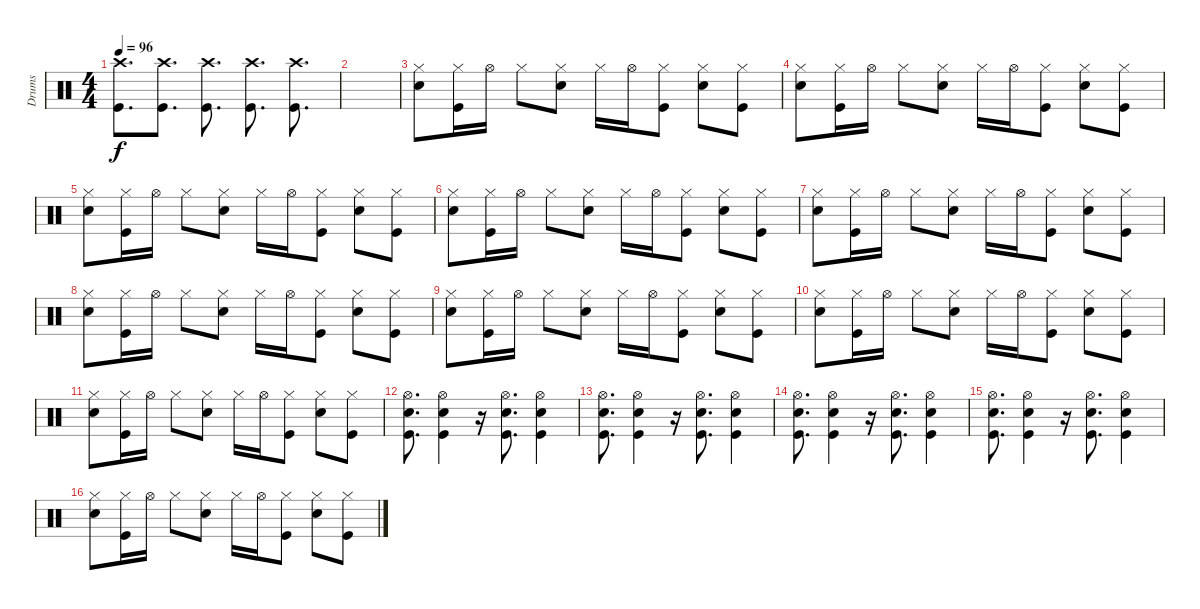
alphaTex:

\track ("Drums" "Drums") {instrument percussion}
\staff {score}
\articulation defaults
\ts (4 4)
\tempo 96
\clef neutral
\ks c
("Crash high (hit)" "Kick (hit)").8{d dy f} ("Crash high (hit)" "Kick (hit)").8{d} ("Crash high (hit)" "Kick (hit)").8{d} ("Crash high (hit)" "Kick (hit)").8{d} ("Crash high (hit)" "Kick (hit)").8{d} |
|
("Hi-Hat (closed)" "Electric Snare (hit)").8 ("Hi-Hat (closed)" "Kick (hit)").16 "Hi-Hat (open)".16 "Hi-Hat (closed)".8 ("Hi-Hat (closed)" "Electric Snare (hit)").8 "Hi-Hat (closed)".16 "Hi-Hat (open)".16 ("Hi-Hat (closed)" "Kick (hit)").8 ("Hi-Hat (closed)" "Electric Snare (hit)").8 ("Hi-Hat (closed)" "Kick (hit)").8 |
("Hi-Hat (closed)" "Electric Snare (hit)").8 ("Hi-Hat (closed)" "Kick (hit)").16 "Hi-Hat (open)".16 "Hi-Hat (closed)".8 ("Hi-Hat (closed)" "Electric Snare (hit)").8 "Hi-Hat (closed)".16 "Hi-Hat (open)".16 ("Hi-Hat (closed)" "Kick (hit)").8 ("Hi-Hat (closed)" "Electric Snare (hit)").8 ("Hi-Hat (closed)" "Kick (hit)").8 |
("Hi-Hat (closed)" "Electric Snare (hit)").8 ("Hi-Hat (closed)" "Kick (hit)").16 "Hi-Hat (open)".16 "Hi-Hat (closed)".8 ("Hi-Hat (closed)" "Electric Snare (hit)").8 "Hi-Hat (closed)".16 "Hi-Hat (open)".16 ("Hi-Hat (closed)" "Kick (hit)").8 ("Hi-Hat (closed)" "Electric Snare (hit)").8 ("Hi-Hat (closed)" "Kick (hit)").8 |
("Hi-Hat (closed)" "Electric Snare (hit)").8 ("Hi-Hat (closed)" "Kick (hit)").16 "Hi-Hat (open)".16 "Hi-Hat (closed)".8 ("Hi-Hat (closed)" "Electric Snare (hit)").8 "Hi-Hat (closed)".16 "Hi-Hat (open)".16 ("Hi-Hat (closed)" "Kick (hit)").8 ("Hi-Hat (closed)" "Electric Snare (hit)").8 ("Hi-Hat (closed)" "Kick (hit)").8 |
("Hi-Hat (closed)" "Electric Snare (hit)").8 ("Hi-Hat (closed)" "Kick (hit)").16 "Hi-Hat (open)".16 "Hi-Hat (closed)".8 ("Hi-Hat (closed)" "Electric Snare (hit)").8 "Hi-Hat (closed)".16 "Hi-Hat (open)".16 ("Hi-Hat (closed)" "Kick (hit)").8 ("Hi-Hat (closed)" "Electric Snare (hit)").8 ("Hi-Hat (closed)" "Kick (hit)").8 |
("Hi-Hat (closed)" "Electric Snare (hit)").8 ("Hi-Hat (closed)" "Kick (hit)").16 "Hi-Hat (open)".16 "Hi-Hat (closed)".8 ("Hi-Hat (closed)" "Electric Snare (hit)").8 "Hi-Hat (closed)".16 "Hi-Hat (open)".16 ("Hi-Hat (closed)" "Kick (hit)").8 ("Hi-Hat (closed)" "Electric Snare (hit)").8 ("Hi-Hat (closed)" "Kick (hit)").8 |
("Hi-Hat (closed)" "Electric Snare (hit)").8 ("Hi-Hat (closed)" "Kick (hit)").16 "Hi-Hat (open)".16 "Hi-Hat (closed)".8 ("Hi-Hat (closed)" "Electric Snare (hit)").8 "Hi-Hat (closed)".16 "Hi-Hat (open)".16 ("Hi-Hat (closed)" "Kick (hit)").8 ("Hi-Hat (closed)" "Electric Snare (hit)").8 ("Hi-Hat (closed)" "Kick (hit)").8 |
("Hi-Hat (closed)" "Electric Snare (hit)").8 ("Hi-Hat (closed)" "Kick (hit)").16 "Hi-Hat (open)".16 "Hi-Hat (closed)".8 ("Hi-Hat (closed)" "Electric Snare (hit)").8 "Hi-Hat (closed)".16 "Hi-Hat (open)".16 ("Hi-Hat (closed)" "Kick (hit)").8 ("Hi-Hat (closed)" "Electric Snare (hit)").8 ("Hi-Hat (closed)" "Kick (hit)").8 |
("Hi-Hat (closed)" "Electric Snare (hit)").8 ("Hi-Hat (closed)" "Kick (hit)").16 "Hi-Hat (open)".16 "Hi-Hat (closed)".8 ("Hi-Hat (closed)" "Electric Snare (hit)").8 "Hi-Hat (closed)".16 "Hi-Hat (open)".16 ("Hi-Hat (closed)" "Kick (hit)").8 ("Hi-Hat (closed)" "Electric Snare (hit)").8 ("Hi-Hat (closed)" "Kick (hit)").8 |
("Hi-Hat (open)" "Electric Snare (hit)" "Kick (hit)").8{d} ("Hi-Hat (open)" "Electric Snare (hit)" "Kick (hit)").4 r.16 ("Hi-Hat (open)" "Electric Snare (hit)" "Kick (hit)").8{d} ("Hi-Hat (open)" "Electric Snare (hit)" "Kick (hit)").4 |
("Hi-Hat (open)" "Electric Snare (hit)" "Kick (hit)").8{d} ("Hi-Hat (open)" "Electric Snare (hit)" "Kick (hit)").4 r.16 ("Hi-Hat (open)" "Electric Snare (hit)" "Kick (hit)").8{d} ("Hi-Hat (open)" "Electric Snare (hit)" "Kick (hit)").4 |
("Hi-Hat (open)" "Electric Snare (hit)" "Kick (hit)").8{d} ("Hi-Hat (open)" "Electric Snare (hit)" "Kick (hit)").4 r.16 ("Hi-Hat (open)" "Electric Snare (hit)" "Kick (hit)").8{d} ("Hi-Hat (open)" "Electric Snare (hit)" "Kick (hit)").4 |
("Hi-Hat (open)" "Electric Snare (hit)" "Kick (hit)").8{d} ("Hi-Hat (open)" "Electric Snare (hit)" "Kick (hit)").4 r.16 ("Hi-Hat (open)" "Electric Snare (hit)" "Kick (hit)").8{d} ("Hi-Hat (open)" "Electric Snare (hit)" "Kick (hit)").4 |
("Hi-Hat (closed)" "Electric Snare (hit)").8 ("Hi-Hat (closed)" "Kick (hit)").16 "Hi-Hat (open)".16 "Hi-Hat (closed)".8 ("Hi-Hat (closed)" "Electric Snare (hit)").8 "Hi-Hat (closed)".16 "Hi-Hat (open)".16 ("Hi-Hat (closed)" "Kick (hit)").8 ("Hi-Hat (closed)" "Electric Snare (hit)").8 ("Hi-Hat (closed)" "Kick (hit)").8
